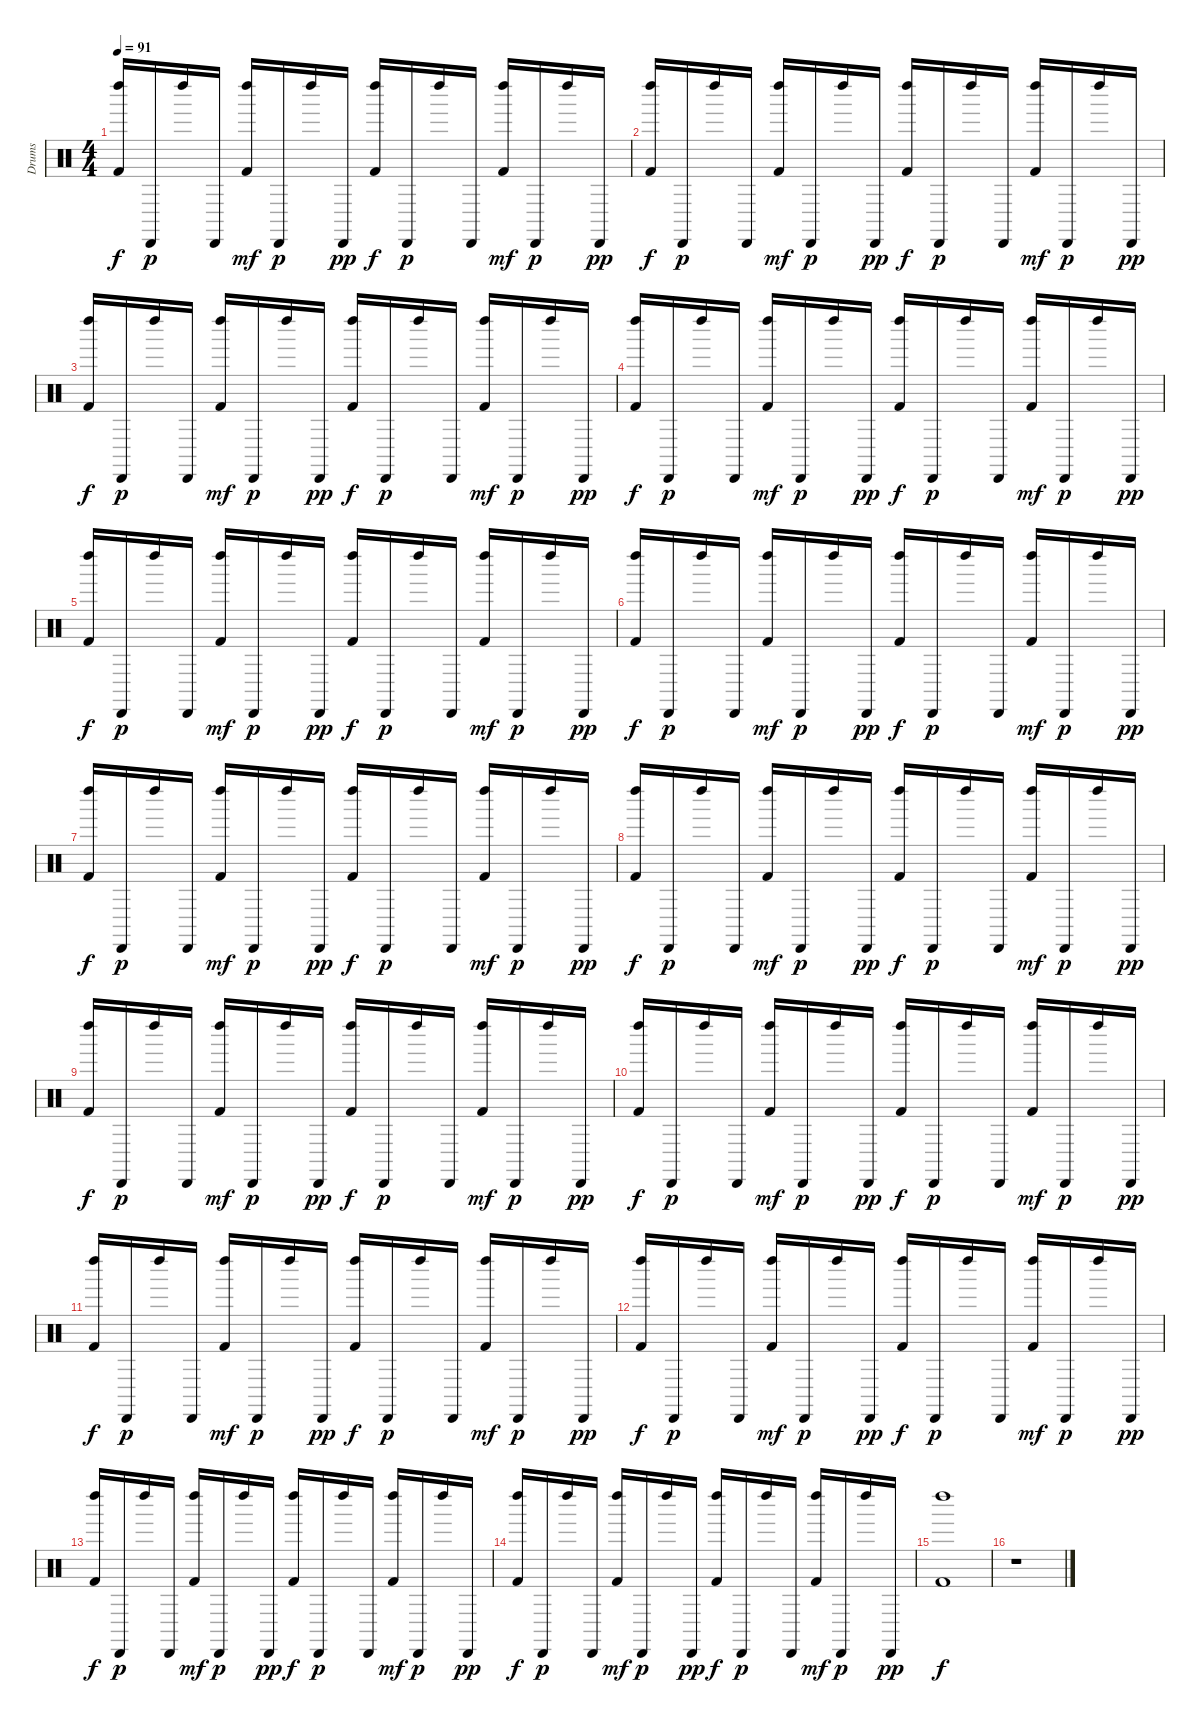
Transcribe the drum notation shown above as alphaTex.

\track ("Drums" "Drums") {instrument percussion}
\staff {score}
\articulation defaults
\ts (4 4)
\tempo 91
\clef neutral
\ks c
("Kick (hit) 2" "Left Maraca (hit)").16{dy f} "Cabasa (hit)".16{dy p} "Left Maraca (hit)".16 "Cabasa (hit)".16 ("Kick (hit) 2" "Left Maraca (hit)").16{dy mf} "Cabasa (hit)".16{dy p} "Left Maraca (hit)".16 "Cabasa (hit)".16{dy pp} ("Kick (hit) 2" "Left Maraca (hit)").16{dy f} "Cabasa (hit)".16{dy p} "Left Maraca (hit)".16 "Cabasa (hit)".16 ("Kick (hit) 2" "Left Maraca (hit)").16{dy mf} "Cabasa (hit)".16{dy p} "Left Maraca (hit)".16 "Cabasa (hit)".16{dy pp} |
("Kick (hit) 2" "Left Maraca (hit)").16{dy f} "Cabasa (hit)".16{dy p} "Left Maraca (hit)".16 "Cabasa (hit)".16 ("Kick (hit) 2" "Left Maraca (hit)").16{dy mf} "Cabasa (hit)".16{dy p} "Left Maraca (hit)".16 "Cabasa (hit)".16{dy pp} ("Kick (hit) 2" "Left Maraca (hit)").16{dy f} "Cabasa (hit)".16{dy p} "Left Maraca (hit)".16 "Cabasa (hit)".16 ("Kick (hit) 2" "Left Maraca (hit)").16{dy mf} "Cabasa (hit)".16{dy p} "Left Maraca (hit)".16 "Cabasa (hit)".16{dy pp} |
("Kick (hit) 2" "Left Maraca (hit)").16{dy f} "Cabasa (hit)".16{dy p} "Left Maraca (hit)".16 "Cabasa (hit)".16 ("Kick (hit) 2" "Left Maraca (hit)").16{dy mf} "Cabasa (hit)".16{dy p} "Left Maraca (hit)".16 "Cabasa (hit)".16{dy pp} ("Kick (hit) 2" "Left Maraca (hit)").16{dy f} "Cabasa (hit)".16{dy p} "Left Maraca (hit)".16 "Cabasa (hit)".16 ("Kick (hit) 2" "Left Maraca (hit)").16{dy mf} "Cabasa (hit)".16{dy p} "Left Maraca (hit)".16 "Cabasa (hit)".16{dy pp} |
("Kick (hit) 2" "Left Maraca (hit)").16{dy f} "Cabasa (hit)".16{dy p} "Left Maraca (hit)".16 "Cabasa (hit)".16 ("Kick (hit) 2" "Left Maraca (hit)").16{dy mf} "Cabasa (hit)".16{dy p} "Left Maraca (hit)".16 "Cabasa (hit)".16{dy pp} ("Kick (hit) 2" "Left Maraca (hit)").16{dy f} "Cabasa (hit)".16{dy p} "Left Maraca (hit)".16 "Cabasa (hit)".16 ("Kick (hit) 2" "Left Maraca (hit)").16{dy mf} "Cabasa (hit)".16{dy p} "Left Maraca (hit)".16 "Cabasa (hit)".16{dy pp} |
("Kick (hit) 2" "Left Maraca (hit)").16{dy f} "Cabasa (hit)".16{dy p} "Left Maraca (hit)".16 "Cabasa (hit)".16 ("Kick (hit) 2" "Left Maraca (hit)").16{dy mf} "Cabasa (hit)".16{dy p} "Left Maraca (hit)".16 "Cabasa (hit)".16{dy pp} ("Kick (hit) 2" "Left Maraca (hit)").16{dy f} "Cabasa (hit)".16{dy p} "Left Maraca (hit)".16 "Cabasa (hit)".16 ("Kick (hit) 2" "Left Maraca (hit)").16{dy mf} "Cabasa (hit)".16{dy p} "Left Maraca (hit)".16 "Cabasa (hit)".16{dy pp} |
("Kick (hit) 2" "Left Maraca (hit)").16{dy f} "Cabasa (hit)".16{dy p} "Left Maraca (hit)".16 "Cabasa (hit)".16 ("Kick (hit) 2" "Left Maraca (hit)").16{dy mf} "Cabasa (hit)".16{dy p} "Left Maraca (hit)".16 "Cabasa (hit)".16{dy pp} ("Kick (hit) 2" "Left Maraca (hit)").16{dy f} "Cabasa (hit)".16{dy p} "Left Maraca (hit)".16 "Cabasa (hit)".16 ("Kick (hit) 2" "Left Maraca (hit)").16{dy mf} "Cabasa (hit)".16{dy p} "Left Maraca (hit)".16 "Cabasa (hit)".16{dy pp} |
("Kick (hit) 2" "Left Maraca (hit)").16{dy f} "Cabasa (hit)".16{dy p} "Left Maraca (hit)".16 "Cabasa (hit)".16 ("Kick (hit) 2" "Left Maraca (hit)").16{dy mf} "Cabasa (hit)".16{dy p} "Left Maraca (hit)".16 "Cabasa (hit)".16{dy pp} ("Kick (hit) 2" "Left Maraca (hit)").16{dy f} "Cabasa (hit)".16{dy p} "Left Maraca (hit)".16 "Cabasa (hit)".16 ("Kick (hit) 2" "Left Maraca (hit)").16{dy mf} "Cabasa (hit)".16{dy p} "Left Maraca (hit)".16 "Cabasa (hit)".16{dy pp} |
("Kick (hit) 2" "Left Maraca (hit)").16{dy f} "Cabasa (hit)".16{dy p} "Left Maraca (hit)".16 "Cabasa (hit)".16 ("Kick (hit) 2" "Left Maraca (hit)").16{dy mf} "Cabasa (hit)".16{dy p} "Left Maraca (hit)".16 "Cabasa (hit)".16{dy pp} ("Kick (hit) 2" "Left Maraca (hit)").16{dy f} "Cabasa (hit)".16{dy p} "Left Maraca (hit)".16 "Cabasa (hit)".16 ("Kick (hit) 2" "Left Maraca (hit)").16{dy mf} "Cabasa (hit)".16{dy p} "Left Maraca (hit)".16 "Cabasa (hit)".16{dy pp} |
("Kick (hit) 2" "Left Maraca (hit)").16{dy f} "Cabasa (hit)".16{dy p} "Left Maraca (hit)".16 "Cabasa (hit)".16 ("Kick (hit) 2" "Left Maraca (hit)").16{dy mf} "Cabasa (hit)".16{dy p} "Left Maraca (hit)".16 "Cabasa (hit)".16{dy pp} ("Kick (hit) 2" "Left Maraca (hit)").16{dy f} "Cabasa (hit)".16{dy p} "Left Maraca (hit)".16 "Cabasa (hit)".16 ("Kick (hit) 2" "Left Maraca (hit)").16{dy mf} "Cabasa (hit)".16{dy p} "Left Maraca (hit)".16 "Cabasa (hit)".16{dy pp} |
("Kick (hit) 2" "Left Maraca (hit)").16{dy f} "Cabasa (hit)".16{dy p} "Left Maraca (hit)".16 "Cabasa (hit)".16 ("Kick (hit) 2" "Left Maraca (hit)").16{dy mf} "Cabasa (hit)".16{dy p} "Left Maraca (hit)".16 "Cabasa (hit)".16{dy pp} ("Kick (hit) 2" "Left Maraca (hit)").16{dy f} "Cabasa (hit)".16{dy p} "Left Maraca (hit)".16 "Cabasa (hit)".16 ("Kick (hit) 2" "Left Maraca (hit)").16{dy mf} "Cabasa (hit)".16{dy p} "Left Maraca (hit)".16 "Cabasa (hit)".16{dy pp} |
("Kick (hit) 2" "Left Maraca (hit)").16{dy f} "Cabasa (hit)".16{dy p} "Left Maraca (hit)".16 "Cabasa (hit)".16 ("Kick (hit) 2" "Left Maraca (hit)").16{dy mf} "Cabasa (hit)".16{dy p} "Left Maraca (hit)".16 "Cabasa (hit)".16{dy pp} ("Kick (hit) 2" "Left Maraca (hit)").16{dy f} "Cabasa (hit)".16{dy p} "Left Maraca (hit)".16 "Cabasa (hit)".16 ("Kick (hit) 2" "Left Maraca (hit)").16{dy mf} "Cabasa (hit)".16{dy p} "Left Maraca (hit)".16 "Cabasa (hit)".16{dy pp} |
("Kick (hit) 2" "Left Maraca (hit)").16{dy f} "Cabasa (hit)".16{dy p} "Left Maraca (hit)".16 "Cabasa (hit)".16 ("Kick (hit) 2" "Left Maraca (hit)").16{dy mf} "Cabasa (hit)".16{dy p} "Left Maraca (hit)".16 "Cabasa (hit)".16{dy pp} ("Kick (hit) 2" "Left Maraca (hit)").16{dy f} "Cabasa (hit)".16{dy p} "Left Maraca (hit)".16 "Cabasa (hit)".16 ("Kick (hit) 2" "Left Maraca (hit)").16{dy mf} "Cabasa (hit)".16{dy p} "Left Maraca (hit)".16 "Cabasa (hit)".16{dy pp} |
("Kick (hit) 2" "Left Maraca (hit)").16{dy f} "Cabasa (hit)".16{dy p} "Left Maraca (hit)".16 "Cabasa (hit)".16 ("Kick (hit) 2" "Left Maraca (hit)").16{dy mf} "Cabasa (hit)".16{dy p} "Left Maraca (hit)".16 "Cabasa (hit)".16{dy pp} ("Kick (hit) 2" "Left Maraca (hit)").16{dy f} "Cabasa (hit)".16{dy p} "Left Maraca (hit)".16 "Cabasa (hit)".16 ("Kick (hit) 2" "Left Maraca (hit)").16{dy mf} "Cabasa (hit)".16{dy p} "Left Maraca (hit)".16 "Cabasa (hit)".16{dy pp} |
("Kick (hit) 2" "Left Maraca (hit)").16{dy f} "Cabasa (hit)".16{dy p} "Left Maraca (hit)".16 "Cabasa (hit)".16 ("Kick (hit) 2" "Left Maraca (hit)").16{dy mf} "Cabasa (hit)".16{dy p} "Left Maraca (hit)".16 "Cabasa (hit)".16{dy pp} ("Kick (hit) 2" "Left Maraca (hit)").16{dy f} "Cabasa (hit)".16{dy p} "Left Maraca (hit)".16 "Cabasa (hit)".16 ("Kick (hit) 2" "Left Maraca (hit)").16{dy mf} "Cabasa (hit)".16{dy p} "Left Maraca (hit)".16 "Cabasa (hit)".16{dy pp} |
("Kick (hit) 2" "Left Maraca (hit)").1{dy f} |
r.1
